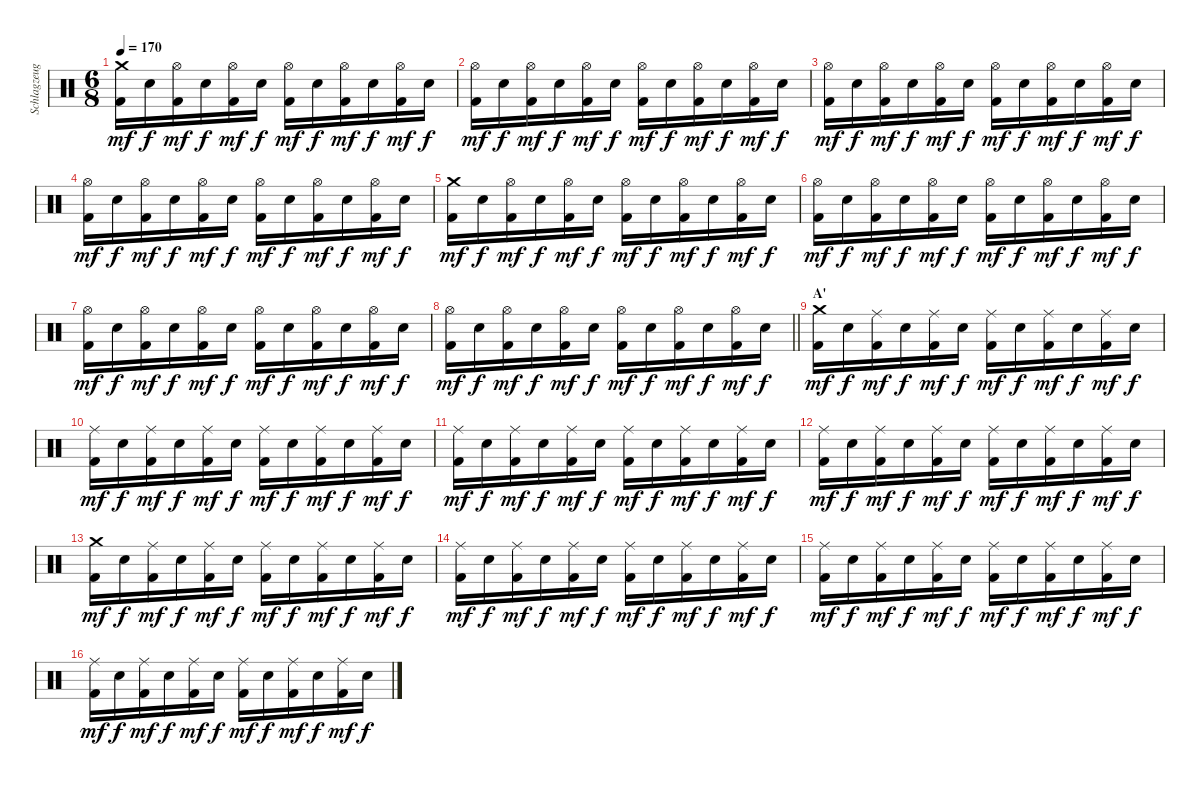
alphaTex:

\track ("Schlagzeug" "Schlagzeug") {instrument percussion}
\staff {score}
\articulation defaults
\ts (6 8)
\tempo 170
\clef neutral
\ks c
("Crash medium (hit)" "Kick (hit) 2").16{dy mf} "Electric Snare (hit)".16{dy f} ("Hi-Hat (open)" "Kick (hit) 2").16{dy mf} "Electric Snare (hit)".16{dy f} ("Hi-Hat (open)" "Kick (hit) 2").16{dy mf} "Electric Snare (hit)".16{dy f} ("Hi-Hat (open)" "Kick (hit) 2").16{dy mf} "Electric Snare (hit)".16{dy f} ("Hi-Hat (open)" "Kick (hit) 2").16{dy mf} "Electric Snare (hit)".16{dy f} ("Hi-Hat (open)" "Kick (hit) 2").16{dy mf} "Electric Snare (hit)".16{dy f} |
("Hi-Hat (open)" "Kick (hit) 2").16{dy mf} "Electric Snare (hit)".16{dy f} ("Hi-Hat (open)" "Kick (hit) 2").16{dy mf} "Electric Snare (hit)".16{dy f} ("Hi-Hat (open)" "Kick (hit) 2").16{dy mf} "Electric Snare (hit)".16{dy f} ("Hi-Hat (open)" "Kick (hit) 2").16{dy mf} "Electric Snare (hit)".16{dy f} ("Hi-Hat (open)" "Kick (hit) 2").16{dy mf} "Electric Snare (hit)".16{dy f} ("Hi-Hat (open)" "Kick (hit) 2").16{dy mf} "Electric Snare (hit)".16{dy f} |
("Hi-Hat (open)" "Kick (hit) 2").16{dy mf} "Electric Snare (hit)".16{dy f} ("Hi-Hat (open)" "Kick (hit) 2").16{dy mf} "Electric Snare (hit)".16{dy f} ("Hi-Hat (open)" "Kick (hit) 2").16{dy mf} "Electric Snare (hit)".16{dy f} ("Hi-Hat (open)" "Kick (hit) 2").16{dy mf} "Electric Snare (hit)".16{dy f} ("Hi-Hat (open)" "Kick (hit) 2").16{dy mf} "Electric Snare (hit)".16{dy f} ("Hi-Hat (open)" "Kick (hit) 2").16{dy mf} "Electric Snare (hit)".16{dy f} |
("Hi-Hat (open)" "Kick (hit) 2").16{dy mf} "Electric Snare (hit)".16{dy f} ("Hi-Hat (open)" "Kick (hit) 2").16{dy mf} "Electric Snare (hit)".16{dy f} ("Hi-Hat (open)" "Kick (hit) 2").16{dy mf} "Electric Snare (hit)".16{dy f} ("Hi-Hat (open)" "Kick (hit) 2").16{dy mf} "Electric Snare (hit)".16{dy f} ("Hi-Hat (open)" "Kick (hit) 2").16{dy mf} "Electric Snare (hit)".16{dy f} ("Hi-Hat (open)" "Kick (hit) 2").16{dy mf} "Electric Snare (hit)".16{dy f} |
("Crash medium (hit)" "Kick (hit) 2").16{dy mf} "Electric Snare (hit)".16{dy f} ("Hi-Hat (open)" "Kick (hit) 2").16{dy mf} "Electric Snare (hit)".16{dy f} ("Hi-Hat (open)" "Kick (hit) 2").16{dy mf} "Electric Snare (hit)".16{dy f} ("Hi-Hat (open)" "Kick (hit) 2").16{dy mf} "Electric Snare (hit)".16{dy f} ("Hi-Hat (open)" "Kick (hit) 2").16{dy mf} "Electric Snare (hit)".16{dy f} ("Hi-Hat (open)" "Kick (hit) 2").16{dy mf} "Electric Snare (hit)".16{dy f} |
("Hi-Hat (open)" "Kick (hit) 2").16{dy mf} "Electric Snare (hit)".16{dy f} ("Hi-Hat (open)" "Kick (hit) 2").16{dy mf} "Electric Snare (hit)".16{dy f} ("Hi-Hat (open)" "Kick (hit) 2").16{dy mf} "Electric Snare (hit)".16{dy f} ("Hi-Hat (open)" "Kick (hit) 2").16{dy mf} "Electric Snare (hit)".16{dy f} ("Hi-Hat (open)" "Kick (hit) 2").16{dy mf} "Electric Snare (hit)".16{dy f} ("Hi-Hat (open)" "Kick (hit) 2").16{dy mf} "Electric Snare (hit)".16{dy f} |
("Hi-Hat (open)" "Kick (hit) 2").16{dy mf} "Electric Snare (hit)".16{dy f} ("Hi-Hat (open)" "Kick (hit) 2").16{dy mf} "Electric Snare (hit)".16{dy f} ("Hi-Hat (open)" "Kick (hit) 2").16{dy mf} "Electric Snare (hit)".16{dy f} ("Hi-Hat (open)" "Kick (hit) 2").16{dy mf} "Electric Snare (hit)".16{dy f} ("Hi-Hat (open)" "Kick (hit) 2").16{dy mf} "Electric Snare (hit)".16{dy f} ("Hi-Hat (open)" "Kick (hit) 2").16{dy mf} "Electric Snare (hit)".16{dy f} |
\barLineRight lightlight
("Hi-Hat (open)" "Kick (hit) 2").16{dy mf} "Electric Snare (hit)".16{dy f} ("Hi-Hat (open)" "Kick (hit) 2").16{dy mf} "Electric Snare (hit)".16{dy f} ("Hi-Hat (open)" "Kick (hit) 2").16{dy mf} "Electric Snare (hit)".16{dy f} ("Hi-Hat (open)" "Kick (hit) 2").16{dy mf} "Electric Snare (hit)".16{dy f} ("Hi-Hat (open)" "Kick (hit) 2").16{dy mf} "Electric Snare (hit)".16{dy f} ("Hi-Hat (open)" "Kick (hit) 2").16{dy mf} "Electric Snare (hit)".16{dy f} |
\section ("" "A'")
("Crash medium (hit)" "Kick (hit) 2").16{dy mf} "Electric Snare (hit)".16{dy f} ("Ride (middle)" "Kick (hit) 2").16{dy mf} "Electric Snare (hit)".16{dy f} ("Ride (middle)" "Kick (hit) 2").16{dy mf} "Electric Snare (hit)".16{dy f} ("Ride (middle)" "Kick (hit) 2").16{dy mf} "Electric Snare (hit)".16{dy f} ("Ride (middle)" "Kick (hit) 2").16{dy mf} "Electric Snare (hit)".16{dy f} ("Ride (middle)" "Kick (hit) 2").16{dy mf} "Electric Snare (hit)".16{dy f} |
("Ride (middle)" "Kick (hit) 2").16{dy mf} "Electric Snare (hit)".16{dy f} ("Ride (middle)" "Kick (hit) 2").16{dy mf} "Electric Snare (hit)".16{dy f} ("Ride (middle)" "Kick (hit) 2").16{dy mf} "Electric Snare (hit)".16{dy f} ("Ride (middle)" "Kick (hit) 2").16{dy mf} "Electric Snare (hit)".16{dy f} ("Ride (middle)" "Kick (hit) 2").16{dy mf} "Electric Snare (hit)".16{dy f} ("Ride (middle)" "Kick (hit) 2").16{dy mf} "Electric Snare (hit)".16{dy f} |
("Ride (middle)" "Kick (hit) 2").16{dy mf} "Electric Snare (hit)".16{dy f} ("Ride (middle)" "Kick (hit) 2").16{dy mf} "Electric Snare (hit)".16{dy f} ("Ride (middle)" "Kick (hit) 2").16{dy mf} "Electric Snare (hit)".16{dy f} ("Ride (middle)" "Kick (hit) 2").16{dy mf} "Electric Snare (hit)".16{dy f} ("Ride (middle)" "Kick (hit) 2").16{dy mf} "Electric Snare (hit)".16{dy f} ("Ride (middle)" "Kick (hit) 2").16{dy mf} "Electric Snare (hit)".16{dy f} |
("Ride (middle)" "Kick (hit) 2").16{dy mf} "Electric Snare (hit)".16{dy f} ("Ride (middle)" "Kick (hit) 2").16{dy mf} "Electric Snare (hit)".16{dy f} ("Ride (middle)" "Kick (hit) 2").16{dy mf} "Electric Snare (hit)".16{dy f} ("Ride (middle)" "Kick (hit) 2").16{dy mf} "Electric Snare (hit)".16{dy f} ("Ride (middle)" "Kick (hit) 2").16{dy mf} "Electric Snare (hit)".16{dy f} ("Ride (middle)" "Kick (hit) 2").16{dy mf} "Electric Snare (hit)".16{dy f} |
("Crash medium (hit)" "Kick (hit) 2").16{dy mf} "Electric Snare (hit)".16{dy f} ("Ride (middle)" "Kick (hit) 2").16{dy mf} "Electric Snare (hit)".16{dy f} ("Ride (middle)" "Kick (hit) 2").16{dy mf} "Electric Snare (hit)".16{dy f} ("Ride (middle)" "Kick (hit) 2").16{dy mf} "Electric Snare (hit)".16{dy f} ("Ride (middle)" "Kick (hit) 2").16{dy mf} "Electric Snare (hit)".16{dy f} ("Ride (middle)" "Kick (hit) 2").16{dy mf} "Electric Snare (hit)".16{dy f} |
("Ride (middle)" "Kick (hit) 2").16{dy mf} "Electric Snare (hit)".16{dy f} ("Ride (middle)" "Kick (hit) 2").16{dy mf} "Electric Snare (hit)".16{dy f} ("Ride (middle)" "Kick (hit) 2").16{dy mf} "Electric Snare (hit)".16{dy f} ("Ride (middle)" "Kick (hit) 2").16{dy mf} "Electric Snare (hit)".16{dy f} ("Ride (middle)" "Kick (hit) 2").16{dy mf} "Electric Snare (hit)".16{dy f} ("Ride (middle)" "Kick (hit) 2").16{dy mf} "Electric Snare (hit)".16{dy f} |
("Ride (middle)" "Kick (hit) 2").16{dy mf} "Electric Snare (hit)".16{dy f} ("Ride (middle)" "Kick (hit) 2").16{dy mf} "Electric Snare (hit)".16{dy f} ("Ride (middle)" "Kick (hit) 2").16{dy mf} "Electric Snare (hit)".16{dy f} ("Ride (middle)" "Kick (hit) 2").16{dy mf} "Electric Snare (hit)".16{dy f} ("Ride (middle)" "Kick (hit) 2").16{dy mf} "Electric Snare (hit)".16{dy f} ("Ride (middle)" "Kick (hit) 2").16{dy mf} "Electric Snare (hit)".16{dy f} |
("Ride (middle)" "Kick (hit) 2").16{dy mf} "Electric Snare (hit)".16{dy f} ("Ride (middle)" "Kick (hit) 2").16{dy mf} "Electric Snare (hit)".16{dy f} ("Ride (middle)" "Kick (hit) 2").16{dy mf} "Electric Snare (hit)".16{dy f} ("Ride (middle)" "Kick (hit) 2").16{dy mf} "Electric Snare (hit)".16{dy f} ("Ride (middle)" "Kick (hit) 2").16{dy mf} "Electric Snare (hit)".16{dy f} ("Ride (middle)" "Kick (hit) 2").16{dy mf} "Electric Snare (hit)".16{dy f}
